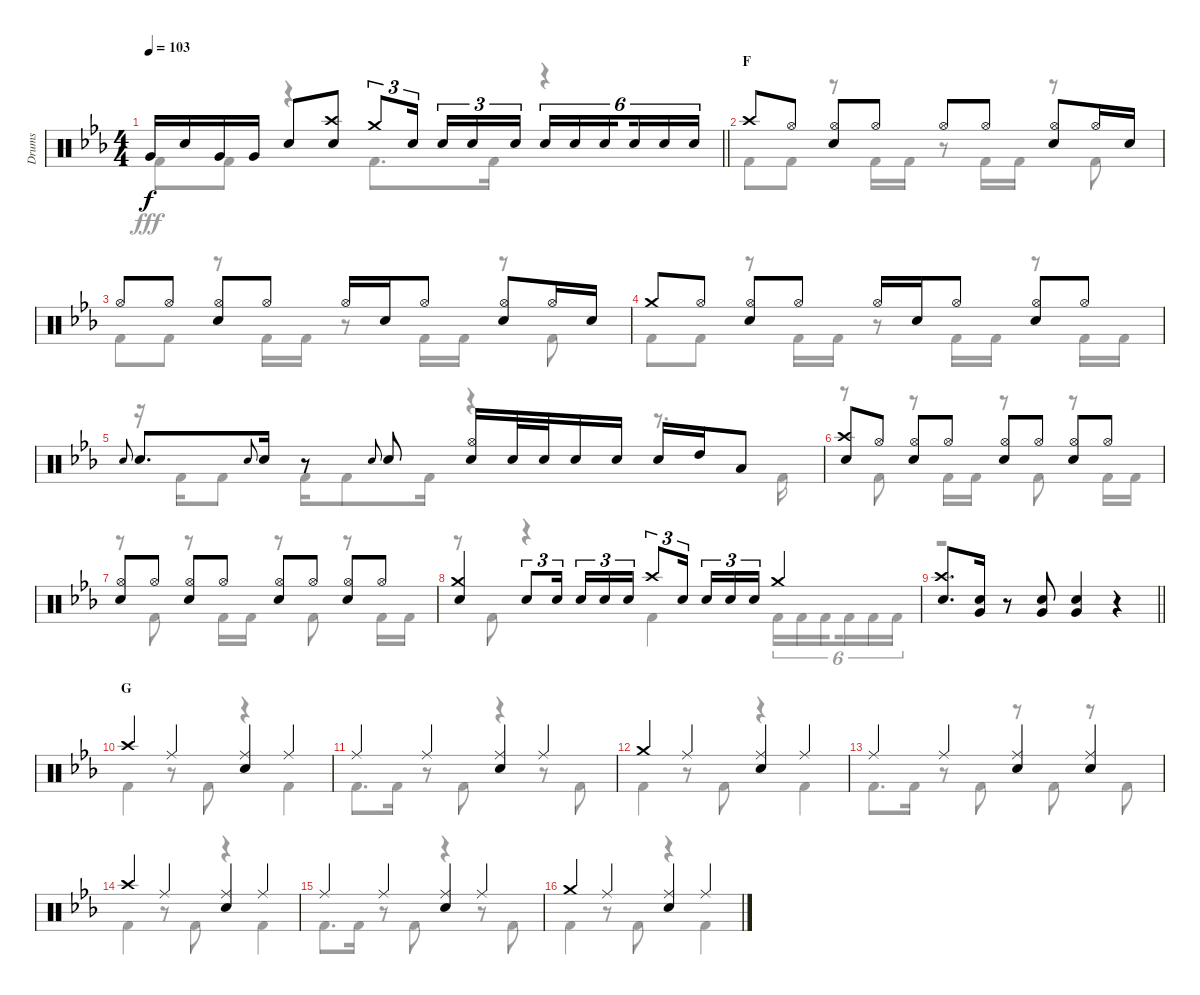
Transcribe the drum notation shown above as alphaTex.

\track ("Drums" "Drums") {instrument percussion}
\staff {score}
\articulation defaults
\voice
\ts (4 4)
\tempo 103
\clef neutral
\barLineRight lightlight
\ks eb "Very Low Tom (hit)".16{dy f} "Snare (hit) 2".16 "Very Low Tom (hit)".16 "Very Low Tom (hit)".16 "Snare (hit) 2".8
("Crash high (hit)" "Snare (hit) 2").8 "Crash medium (hit)".8{tu (3 2)} "Snare (hit) 2".16{tu (3 2) beam splitsecondary} "Snare (hit) 2".16{tu (3 2)} "Snare (hit) 2".16{tu (3 2)} "Snare (hit) 2".16{tu (3 2)} "Snare (hit) 2".16{tu (6 4)} "Snare (hit) 2".16{tu (6 4)} "Snare (hit) 2".16{tu (6 4) beam splitsecondary} "Snare (hit) 2".16{tu (6 4)} "Snare (hit) 2".16{tu (6 4)} "Snare (hit) 2".16{tu (6 4)} |
\section ("" "F")
"Crash high (hit)".8 "Hi-Hat (open)".8 ("Hi-Hat (open)" "Snare (hit) 2").8 "Hi-Hat (open)".8 "Hi-Hat (open)".8 "Hi-Hat (open)".8 ("Hi-Hat (open)" "Snare (hit) 2").8 "Hi-Hat (open)".16 "Snare (hit) 2".16 |
"Hi-Hat (open)".8 "Hi-Hat (open)".8 ("Hi-Hat (open)" "Snare (hit) 2").8 "Hi-Hat (open)".8 "Hi-Hat (open)".16 "Snare (hit) 2".16 "Hi-Hat (open)".8 ("Hi-Hat (open)" "Snare (hit) 2").8 "Hi-Hat (open)".16 "Snare (hit) 2".16 |
"Crash medium (hit)".8 "Hi-Hat (open)".8 ("Hi-Hat (open)" "Snare (hit) 2").8 "Hi-Hat (open)".8 "Hi-Hat (open)".16 "Snare (hit) 2".16 "Hi-Hat (open)".8 ("Hi-Hat (open)" "Snare (hit) 2").8 "Hi-Hat (open)".8 |
"Snare (hit) 2".8{gr onbeat} "Snare (hit) 2".8{d} "Snare (hit) 2".8{gr onbeat} "Snare (hit) 2".16 r.8 "Snare (hit) 2".8{gr onbeat} "Snare (hit) 2".8 ("Hi-Hat (open)" "Snare (hit) 2").16 "Snare (hit) 2".32 "Snare (hit) 2".32 "Snare (hit) 2".16 "Snare (hit) 2".16 "Snare (hit) 2".16 "High Tom (hit)".16 "Low Tom (hit)".8 |
("Crash high (hit)" "Snare (hit) 2").8 "Hi-Hat (open)".8 ("Hi-Hat (open)" "Snare (hit) 2").8 "Hi-Hat (open)".8 ("Hi-Hat (open)" "Snare (hit) 2").8 "Hi-Hat (open)".8 ("Hi-Hat (open)" "Snare (hit) 2").8 "Hi-Hat (open)".8 |
("Hi-Hat (open)" "Snare (hit) 2").8 "Hi-Hat (open)".8 ("Hi-Hat (open)" "Snare (hit) 2").8 "Hi-Hat (open)".8 ("Hi-Hat (open)" "Snare (hit) 2").8 "Hi-Hat (open)".8 ("Hi-Hat (open)" "Snare (hit) 2").8 "Hi-Hat (open)".8 |
("Crash medium (hit)" "Snare (hit) 2").4 "Snare (hit) 2".8{tu (3 2)} "Snare (hit) 2".16{tu (3 2) beam splitsecondary} "Snare (hit) 2".16{tu (3 2)} "Snare (hit) 2".16{tu (3 2)} "Snare (hit) 2".16{tu (3 2)} "Crash high (hit)".8{tu (3 2)} "Snare (hit) 2".16{tu (3 2) beam splitsecondary} "Snare (hit) 2".16{tu (3 2)} "Snare (hit) 2".16{tu (3 2)} "Snare (hit) 2".16{tu (3 2)} "Crash medium (hit)".4 |
\barLineRight lightlight
("Crash high (hit)" "Snare (hit) 2").8{d} ("Snare (hit) 2" "Very Low Tom (hit)").16 r.8 ("Snare (hit) 2" "Very Low Tom (hit)").8 ("Snare (hit) 2" "Very Low Tom (hit)").4 r.4 |
\section ("" "G")
"Crash high (hit)".4 "Ride (middle)".4 ("Ride (middle)" "Snare (hit) 2").4 "Ride (middle)".4 |
"Ride (middle)".4 "Ride (middle)".4 ("Ride (middle)" "Snare (hit) 2").4 "Ride (middle)".4 |
"Crash medium (hit)".4 "Ride (middle)".4 ("Ride (middle)" "Snare (hit) 2").4 "Ride (middle)".4 |
"Ride (middle)".4 "Ride (middle)".4 ("Ride (middle)" "Snare (hit) 2").4 ("Ride (middle)" "Snare (hit) 2").4 |
"Crash high (hit)".4 "Ride (middle)".4 ("Ride (middle)" "Snare (hit) 2").4 "Ride (middle)".4 |
"Ride (middle)".4 "Ride (middle)".4 ("Ride (middle)" "Snare (hit) 2").4 "Ride (middle)".4 |
"Crash medium (hit)".4 "Ride (middle)".4 ("Ride (middle)" "Snare (hit) 2").4 "Ride (middle)".4
\voice
\clef neutral
\ottava regular
\simile none
\barLineRight lightlight
\ks eb "Kick (hit) 2".8{dy fff} "Kick (hit) 2".8
r.4 "Kick (hit) 2".8{d} "Kick (hit) 2".16 r.4 |
"Kick (hit) 2".8 "Kick (hit) 2".8 r.8 "Kick (hit) 2".16 "Kick (hit) 2".16 r.8 "Kick (hit) 2".16 "Kick (hit) 2".16 r.8 "Kick (hit) 2".8 |
"Kick (hit) 2".8 "Kick (hit) 2".8 r.8 "Kick (hit) 2".16 "Kick (hit) 2".16 r.8 "Kick (hit) 2".16 "Kick (hit) 2".16 r.8 "Kick (hit) 2".8 |
"Kick (hit) 2".8 "Kick (hit) 2".8 r.8 "Kick (hit) 2".16 "Kick (hit) 2".16 r.8 "Kick (hit) 2".16 "Kick (hit) 2".16 r.8 "Kick (hit) 2".16 "Kick (hit) 2".16 |
r.16 "Kick (hit) 2".16 "Kick (hit) 2".8 "Kick (hit) 2".16 "Kick (hit) 2".8 "Kick (hit) 2".16 r.4 r.8{d} "Kick (hit) 2".16 |
r.8 "Kick (hit) 2".8 r.8 "Kick (hit) 2".16 "Kick (hit) 2".16 r.8 "Kick (hit) 2".8 r.8 "Kick (hit) 2".16 "Kick (hit) 2".16 |
r.8 "Kick (hit) 2".8 r.8 "Kick (hit) 2".16 "Kick (hit) 2".16 r.8 "Kick (hit) 2".8 r.8 "Kick (hit) 2".16 "Kick (hit) 2".16 |
r.8 "Kick (hit) 2".8 r.4 "Kick (hit) 2".4 "Kick (hit) 2".16{tu (6 4)} "Kick (hit) 2".16{tu (6 4)} "Kick (hit) 2".16{tu (6 4) beam splitsecondary} "Kick (hit) 2".16{tu (6 4)} "Kick (hit) 2".16{tu (6 4)} "Kick (hit) 2".16{tu (6 4)} |
\barLineRight lightlight
r.1 |
"Kick (hit) 2".4 r.8 "Kick (hit) 2".8 r.4 "Kick (hit) 2".4 |
"Kick (hit) 2".8{d} "Kick (hit) 2".16 r.8 "Kick (hit) 2".8 r.4 r.8 "Kick (hit) 2".8 |
"Kick (hit) 2".4 r.8 "Kick (hit) 2".8 r.4 "Kick (hit) 2".4 |
"Kick (hit) 2".8{d} "Kick (hit) 2".16 r.8 "Kick (hit) 2".8 r.8 "Kick (hit) 2".8 r.8 "Kick (hit) 2".8 |
"Kick (hit) 2".4 r.8 "Kick (hit) 2".8 r.4 "Kick (hit) 2".4 |
"Kick (hit) 2".8{d} "Kick (hit) 2".16 r.8 "Kick (hit) 2".8 r.4 r.8 "Kick (hit) 2".8 |
"Kick (hit) 2".4 r.8 "Kick (hit) 2".8 r.4 "Kick (hit) 2".4
